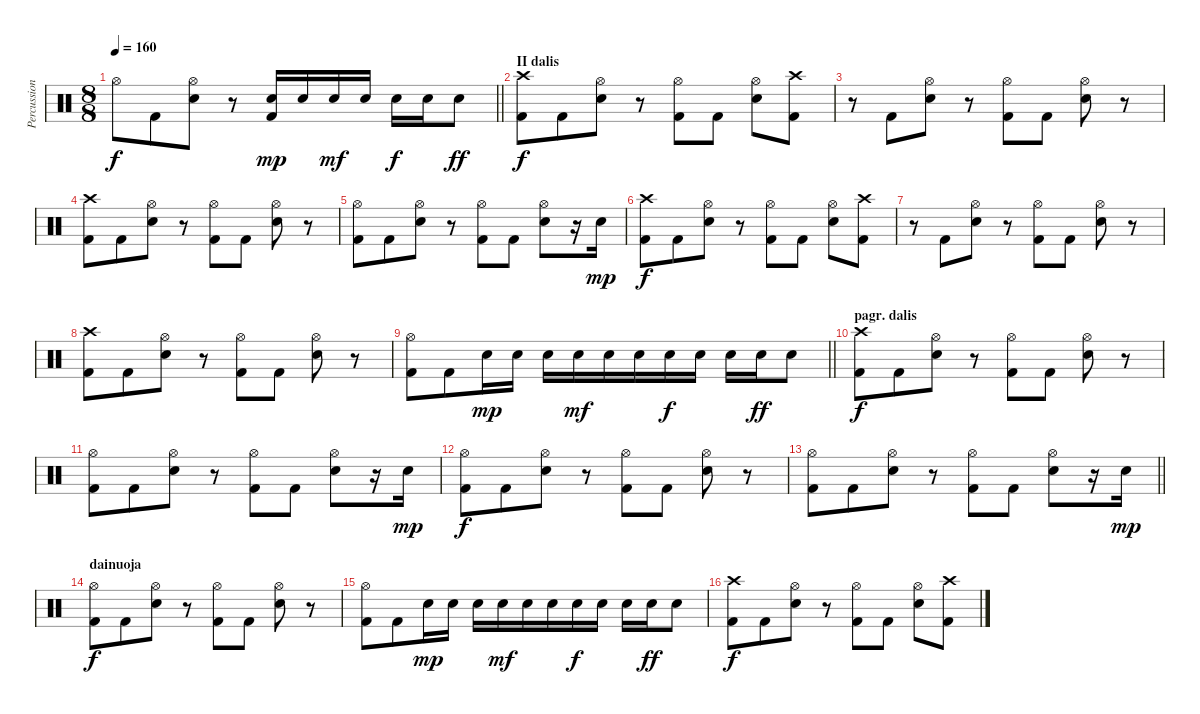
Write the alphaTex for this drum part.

\track ("Percussion" "Percussion") {instrument percussion}
\staff {score}
\articulation defaults
\ts (8 8)
\tempo 160
\clef neutral
\barLineRight lightlight
\ks c "Hi-Hat (open)".8{dy f} "Kick (hit) 2".8
("Hi-Hat (open)" "Snare (hit) 2").8 r.8 ("Snare (hit) 2" "Kick (hit) 2").16{dy mp} "Snare (hit) 2".16 "Snare (hit) 2".16{dy mf} "Snare (hit) 2".16 "Snare (hit) 2".16{dy f} "Snare (hit) 2".16 "Snare (hit) 2".8{dy ff} |
\section ("" "II dalis")
("Crash high (hit)" "Kick (hit) 2").8{dy f} "Kick (hit) 2".8 ("Hi-Hat (open)" "Snare (hit) 2").8 r.8 ("Hi-Hat (open)" "Kick (hit) 2").8 "Kick (hit) 2".8 ("Hi-Hat (open)" "Snare (hit) 2").8 ("Crash high (hit)" "Kick (hit) 2").8 |
r.8 "Kick (hit) 2".8 ("Hi-Hat (open)" "Snare (hit) 2").8 r.8 ("Hi-Hat (open)" "Kick (hit) 2").8 "Kick (hit) 2".8 ("Hi-Hat (open)" "Snare (hit) 2").8 r.8 |
("Crash high (hit)" "Kick (hit) 2").8 "Kick (hit) 2".8 ("Hi-Hat (open)" "Snare (hit) 2").8 r.8 ("Hi-Hat (open)" "Kick (hit) 2").8 "Kick (hit) 2".8 ("Hi-Hat (open)" "Snare (hit) 2").8 r.8 |
("Hi-Hat (open)" "Kick (hit) 2").8 "Kick (hit) 2".8 ("Hi-Hat (open)" "Snare (hit) 2").8 r.8 ("Hi-Hat (open)" "Kick (hit) 2").8 "Kick (hit) 2".8 ("Hi-Hat (open)" "Snare (hit) 2").8 r.16 "Snare (hit) 2".16{dy mp} |
("Crash high (hit)" "Kick (hit) 2").8{dy f} "Kick (hit) 2".8 ("Hi-Hat (open)" "Snare (hit) 2").8 r.8 ("Hi-Hat (open)" "Kick (hit) 2").8 "Kick (hit) 2".8 ("Hi-Hat (open)" "Snare (hit) 2").8 ("Crash high (hit)" "Kick (hit) 2").8 |
r.8 "Kick (hit) 2".8 ("Hi-Hat (open)" "Snare (hit) 2").8 r.8 ("Hi-Hat (open)" "Kick (hit) 2").8 "Kick (hit) 2".8 ("Hi-Hat (open)" "Snare (hit) 2").8 r.8 |
("Crash high (hit)" "Kick (hit) 2").8 "Kick (hit) 2".8 ("Hi-Hat (open)" "Snare (hit) 2").8 r.8 ("Hi-Hat (open)" "Kick (hit) 2").8 "Kick (hit) 2".8 ("Hi-Hat (open)" "Snare (hit) 2").8 r.8 |
\barLineRight lightlight
("Hi-Hat (open)" "Kick (hit) 2").8 "Kick (hit) 2".8 "Snare (hit) 2".16{dy mp} "Snare (hit) 2".16 "Snare (hit) 2".16 "Snare (hit) 2".16{dy mf} "Snare (hit) 2".16 "Snare (hit) 2".16 "Snare (hit) 2".16{dy f} "Snare (hit) 2".16 "Snare (hit) 2".16 "Snare (hit) 2".16{dy ff} "Snare (hit) 2".8 |
\section ("" "pagr. dalis")
("Crash high (hit)" "Kick (hit) 2").8{dy f} "Kick (hit) 2".8 ("Hi-Hat (open)" "Snare (hit) 2").8 r.8 ("Hi-Hat (open)" "Kick (hit) 2").8 "Kick (hit) 2".8 ("Hi-Hat (open)" "Snare (hit) 2").8 r.8 |
("Hi-Hat (open)" "Kick (hit) 2").8 "Kick (hit) 2".8 ("Hi-Hat (open)" "Snare (hit) 2").8 r.8 ("Hi-Hat (open)" "Kick (hit) 2").8 "Kick (hit) 2".8 ("Hi-Hat (open)" "Snare (hit) 2").8 r.16 "Snare (hit) 2".16{dy mp} |
("Hi-Hat (open)" "Kick (hit) 2").8{dy f} "Kick (hit) 2".8 ("Hi-Hat (open)" "Snare (hit) 2").8 r.8 ("Hi-Hat (open)" "Kick (hit) 2").8 "Kick (hit) 2".8 ("Hi-Hat (open)" "Snare (hit) 2").8 r.8 |
\barLineRight lightlight
("Hi-Hat (open)" "Kick (hit) 2").8 "Kick (hit) 2".8 ("Hi-Hat (open)" "Snare (hit) 2").8 r.8 ("Hi-Hat (open)" "Kick (hit) 2").8 "Kick (hit) 2".8 ("Hi-Hat (open)" "Snare (hit) 2").8 r.16 "Snare (hit) 2".16{dy mp} |
\section ("" "dainuoja")
("Hi-Hat (open)" "Kick (hit) 2").8{dy f} "Kick (hit) 2".8 ("Hi-Hat (open)" "Snare (hit) 2").8 r.8 ("Hi-Hat (open)" "Kick (hit) 2").8 "Kick (hit) 2".8 ("Hi-Hat (open)" "Snare (hit) 2").8 r.8 |
("Hi-Hat (open)" "Kick (hit) 2").8 "Kick (hit) 2".8 "Snare (hit) 2".16{dy mp} "Snare (hit) 2".16 "Snare (hit) 2".16 "Snare (hit) 2".16{dy mf} "Snare (hit) 2".16 "Snare (hit) 2".16 "Snare (hit) 2".16{dy f} "Snare (hit) 2".16 "Snare (hit) 2".16 "Snare (hit) 2".16{dy ff} "Snare (hit) 2".8 |
("Crash high (hit)" "Kick (hit) 2").8{dy f} "Kick (hit) 2".8 ("Hi-Hat (open)" "Snare (hit) 2").8 r.8 ("Hi-Hat (open)" "Kick (hit) 2").8 "Kick (hit) 2".8 ("Hi-Hat (open)" "Snare (hit) 2").8 ("Crash high (hit)" "Kick (hit) 2").8
